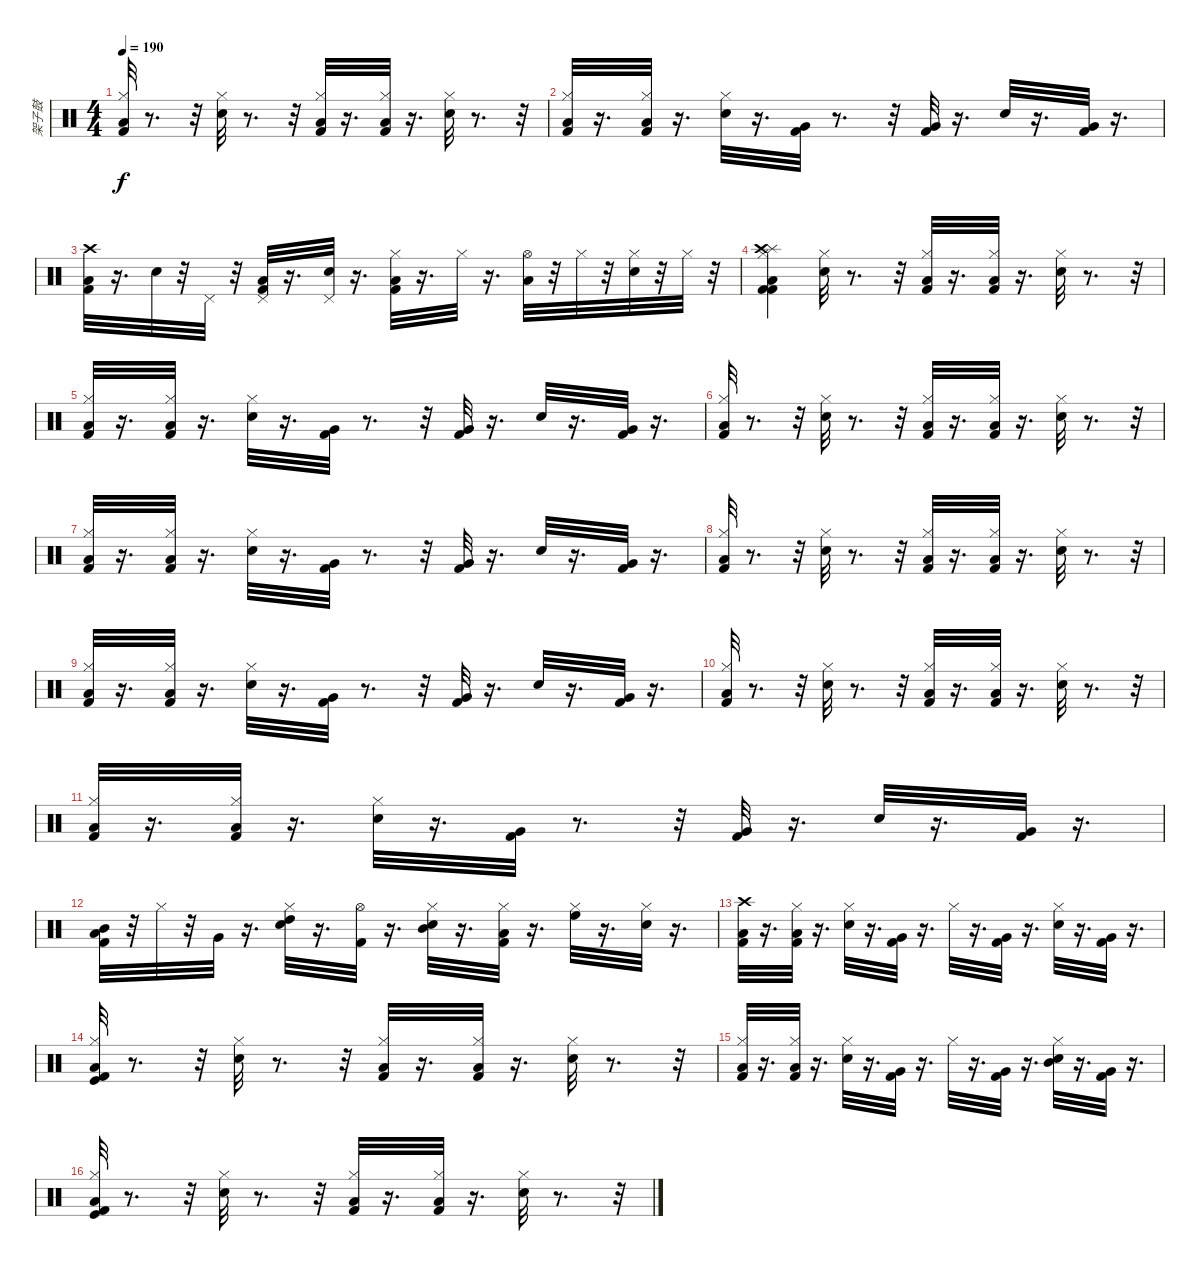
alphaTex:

\track ("架子鼓" "架子鼓") {instrument percussion}
\staff {score}
\articulation defaults
\ts (4 4)
\tempo 190
\clef neutral
\ks c
("Kick (hit) 2" "Hi-Hat (closed)" "Low Floor Tom (hit)").32{dy f} r.8{d} r.32 ("Hi-Hat (closed)" "Electric Snare (hit)").32 r.8{d} r.32 ("Kick (hit) 2" "Hi-Hat (closed)" "Low Floor Tom (hit)").32 r.16{d} ("Kick (hit) 2" "Hi-Hat (closed)" "Low Floor Tom (hit)").32 r.16{d} ("Hi-Hat (closed)" "Electric Snare (hit)").32 r.8{d} r.32 |
("Kick (hit) 2" "Hi-Hat (closed)" "Low Floor Tom (hit)").32 r.16{d} ("Kick (hit) 2" "Hi-Hat (closed)" "Low Floor Tom (hit)").32 r.16{d} ("Hi-Hat (closed)" "Electric Snare (hit)").32 r.16{d} ("Kick (hit) 2" "Very Low Tom (hit)").32 r.8{d} r.32 ("Kick (hit) 2" "Very Low Tom (hit)").32 r.16{d} "Snare (hit) 2".32 r.16{d} ("Kick (hit) 2" "Very Low Tom (hit)").32 r.16{d} |
("Crash high (hit)" "Kick (hit) 2" "Low Floor Tom (hit)").32 r.16{d} "Electric Snare (hit)".32 r.32 "Pedal Hi-Hat (hit)".32 r.32 ("Pedal Hi-Hat (hit)" "Kick (hit) 2" "Low Floor Tom (hit)").32 r.16{d} ("Snare (hit) 2" "Pedal Hi-Hat (hit)").32 r.16{d} ("Kick (hit) 2" "Hi-Hat (closed)" "Low Tom (hit)").32 r.16{d} "Hi-Hat (closed)".32 r.16{d} ("Low Floor Tom (hit)" "Hi-Hat (open)").32 r.32 "Hi-Hat (closed)".32 r.32 ("Snare (hit) 2" "Hi-Hat (closed)").32 r.32 "Hi-Hat (closed)".32 r.32 |
("Kick (hit) 2" "Splash (hit)" "Hi-Hat (closed)" "Kick (hit) 2" "Low Floor Tom (hit)" "Crash high (hit)").4 ("Hi-Hat (closed)" "Electric Snare (hit)").32 r.8{d} r.32 ("Kick (hit) 2" "Hi-Hat (closed)" "Low Floor Tom (hit)").32 r.16{d} ("Kick (hit) 2" "Hi-Hat (closed)" "Low Floor Tom (hit)").32 r.16{d} ("Hi-Hat (closed)" "Electric Snare (hit)").32 r.8{d} r.32 |
("Kick (hit) 2" "Hi-Hat (closed)" "Low Floor Tom (hit)").32 r.16{d} ("Kick (hit) 2" "Hi-Hat (closed)" "Low Floor Tom (hit)").32 r.16{d} ("Hi-Hat (closed)" "Electric Snare (hit)").32 r.16{d} ("Kick (hit) 2" "Very Low Tom (hit)").32 r.8{d} r.32 ("Kick (hit) 2" "Very Low Tom (hit)").32 r.16{d} "Snare (hit) 2".32 r.16{d} ("Kick (hit) 2" "Very Low Tom (hit)").32 r.16{d} |
("Kick (hit) 2" "Hi-Hat (closed)" "Low Floor Tom (hit)").32 r.8{d} r.32 ("Hi-Hat (closed)" "Electric Snare (hit)").32 r.8{d} r.32 ("Kick (hit) 2" "Hi-Hat (closed)" "Low Floor Tom (hit)").32 r.16{d} ("Kick (hit) 2" "Hi-Hat (closed)" "Low Floor Tom (hit)").32 r.16{d} ("Hi-Hat (closed)" "Electric Snare (hit)").32 r.8{d} r.32 |
("Kick (hit) 2" "Hi-Hat (closed)" "Low Floor Tom (hit)").32 r.16{d} ("Kick (hit) 2" "Hi-Hat (closed)" "Low Floor Tom (hit)").32 r.16{d} ("Hi-Hat (closed)" "Electric Snare (hit)").32 r.16{d} ("Kick (hit) 2" "Very Low Tom (hit)").32 r.8{d} r.32 ("Kick (hit) 2" "Very Low Tom (hit)").32 r.16{d} "Snare (hit) 2".32 r.16{d} ("Kick (hit) 2" "Very Low Tom (hit)").32 r.16{d} |
("Kick (hit) 2" "Hi-Hat (closed)" "Low Floor Tom (hit)").32 r.8{d} r.32 ("Hi-Hat (closed)" "Electric Snare (hit)").32 r.8{d} r.32 ("Kick (hit) 2" "Hi-Hat (closed)" "Low Floor Tom (hit)").32 r.16{d} ("Kick (hit) 2" "Hi-Hat (closed)" "Low Floor Tom (hit)").32 r.16{d} ("Hi-Hat (closed)" "Electric Snare (hit)").32 r.8{d} r.32 |
("Kick (hit) 2" "Hi-Hat (closed)" "Low Floor Tom (hit)").32 r.16{d} ("Kick (hit) 2" "Hi-Hat (closed)" "Low Floor Tom (hit)").32 r.16{d} ("Hi-Hat (closed)" "Electric Snare (hit)").32 r.16{d} ("Kick (hit) 2" "Very Low Tom (hit)").32 r.8{d} r.32 ("Kick (hit) 2" "Very Low Tom (hit)").32 r.16{d} "Snare (hit) 2".32 r.16{d} ("Kick (hit) 2" "Very Low Tom (hit)").32 r.16{d} |
("Kick (hit) 2" "Hi-Hat (closed)" "Low Floor Tom (hit)").32 r.8{d} r.32 ("Hi-Hat (closed)" "Electric Snare (hit)").32 r.8{d} r.32 ("Kick (hit) 2" "Hi-Hat (closed)" "Low Floor Tom (hit)").32 r.16{d} ("Kick (hit) 2" "Hi-Hat (closed)" "Low Floor Tom (hit)").32 r.16{d} ("Hi-Hat (closed)" "Electric Snare (hit)").32 r.8{d} r.32 |
("Kick (hit) 2" "Hi-Hat (closed)" "Low Floor Tom (hit)").32 r.16{d} ("Kick (hit) 2" "Hi-Hat (closed)" "Low Floor Tom (hit)").32 r.16{d} ("Hi-Hat (closed)" "Electric Snare (hit)").32 r.16{d} ("Kick (hit) 2" "Very Low Tom (hit)").32 r.8{d} r.32 ("Kick (hit) 2" "Very Low Tom (hit)").32 r.16{d} "Snare (hit) 2".32 r.16{d} ("Kick (hit) 2" "Very Low Tom (hit)").32 r.16{d} |
("Kick (hit) 2" "Mid Tom (hit)" "Low Floor Tom (hit)").32 r.32 "Hi-Hat (closed)".32 r.32 "Very Low Tom (hit)".32 r.16{d} ("High Tom (hit)" "Electric Snare (hit)" "Hi-Hat (closed)").32 r.16{d} ("Hi-Hat (open)" "Kick (hit) 2").32 r.16{d} ("Mid Tom (hit)" "Snare (hit) 2" "Hi-Hat (closed)").32 r.16{d} ("Low Tom (hit)" "Hi-Hat (closed)" "Kick (hit) 2").32 r.16{d} ("High Floor Tom (hit)" "Hi-Hat (closed)").32 r.16{d} ("Snare (hit) 2" "Hi-Hat (closed)").32 r.16{d} |
("Crash high (hit)" "Kick (hit) 2" "Low Floor Tom (hit)").32 r.16{d} ("Kick (hit) 2" "Hi-Hat (closed)" "Low Floor Tom (hit)").32 r.16{d} ("Hi-Hat (closed)" "Electric Snare (hit)").32 r.16{d} ("Kick (hit) 2" "Very Low Tom (hit)").32 r.16{d} "Hi-Hat (closed)".32 r.16{d} ("Kick (hit) 2" "Very Low Tom (hit)").32 r.16{d} ("Hi-Hat (closed)" "Snare (hit) 2").32 r.16{d} ("Kick (hit) 2" "Very Low Tom (hit)").32 r.16{d} |
("Kick (hit)" "Kick (hit) 2" "Hi-Hat (closed)" "Low Floor Tom (hit)").32 r.8{d} r.32 ("Hi-Hat (closed)" "Electric Snare (hit)").32 r.8{d} r.32 ("Kick (hit) 2" "Hi-Hat (closed)" "Low Floor Tom (hit)").32 r.16{d} ("Kick (hit) 2" "Hi-Hat (closed)" "Low Floor Tom (hit)").32 r.16{d} ("Hi-Hat (closed)" "Electric Snare (hit)").32 r.8{d} r.32 |
("Kick (hit) 2" "Hi-Hat (closed)" "Low Floor Tom (hit)").32 r.16{d} ("Low Floor Tom (hit)" "Hi-Hat (closed)" "Kick (hit) 2").32 r.16{d} ("Electric Snare (hit)" "Hi-Hat (closed)").32 r.16{d} ("Very Low Tom (hit)" "Kick (hit) 2").32 r.16{d} "Hi-Hat (closed)".32 r.16{d} ("Very Low Tom (hit)" "Kick (hit) 2").32 r.16{d} ("Hi-Hat (closed)" "Mid Tom (hit)" "Snare (hit) 2").32 r.16{d} ("Very Low Tom (hit)" "Kick (hit) 2").32 r.16{d} |
("Kick (hit)" "Kick (hit) 2" "Hi-Hat (closed)" "Low Floor Tom (hit)").32 r.8{d} r.32 ("Hi-Hat (closed)" "Electric Snare (hit)").32 r.8{d} r.32 ("Kick (hit) 2" "Hi-Hat (closed)" "Low Floor Tom (hit)").32 r.16{d} ("Kick (hit) 2" "Hi-Hat (closed)" "Low Floor Tom (hit)").32 r.16{d} ("Hi-Hat (closed)" "Electric Snare (hit)").32 r.8{d} r.32
